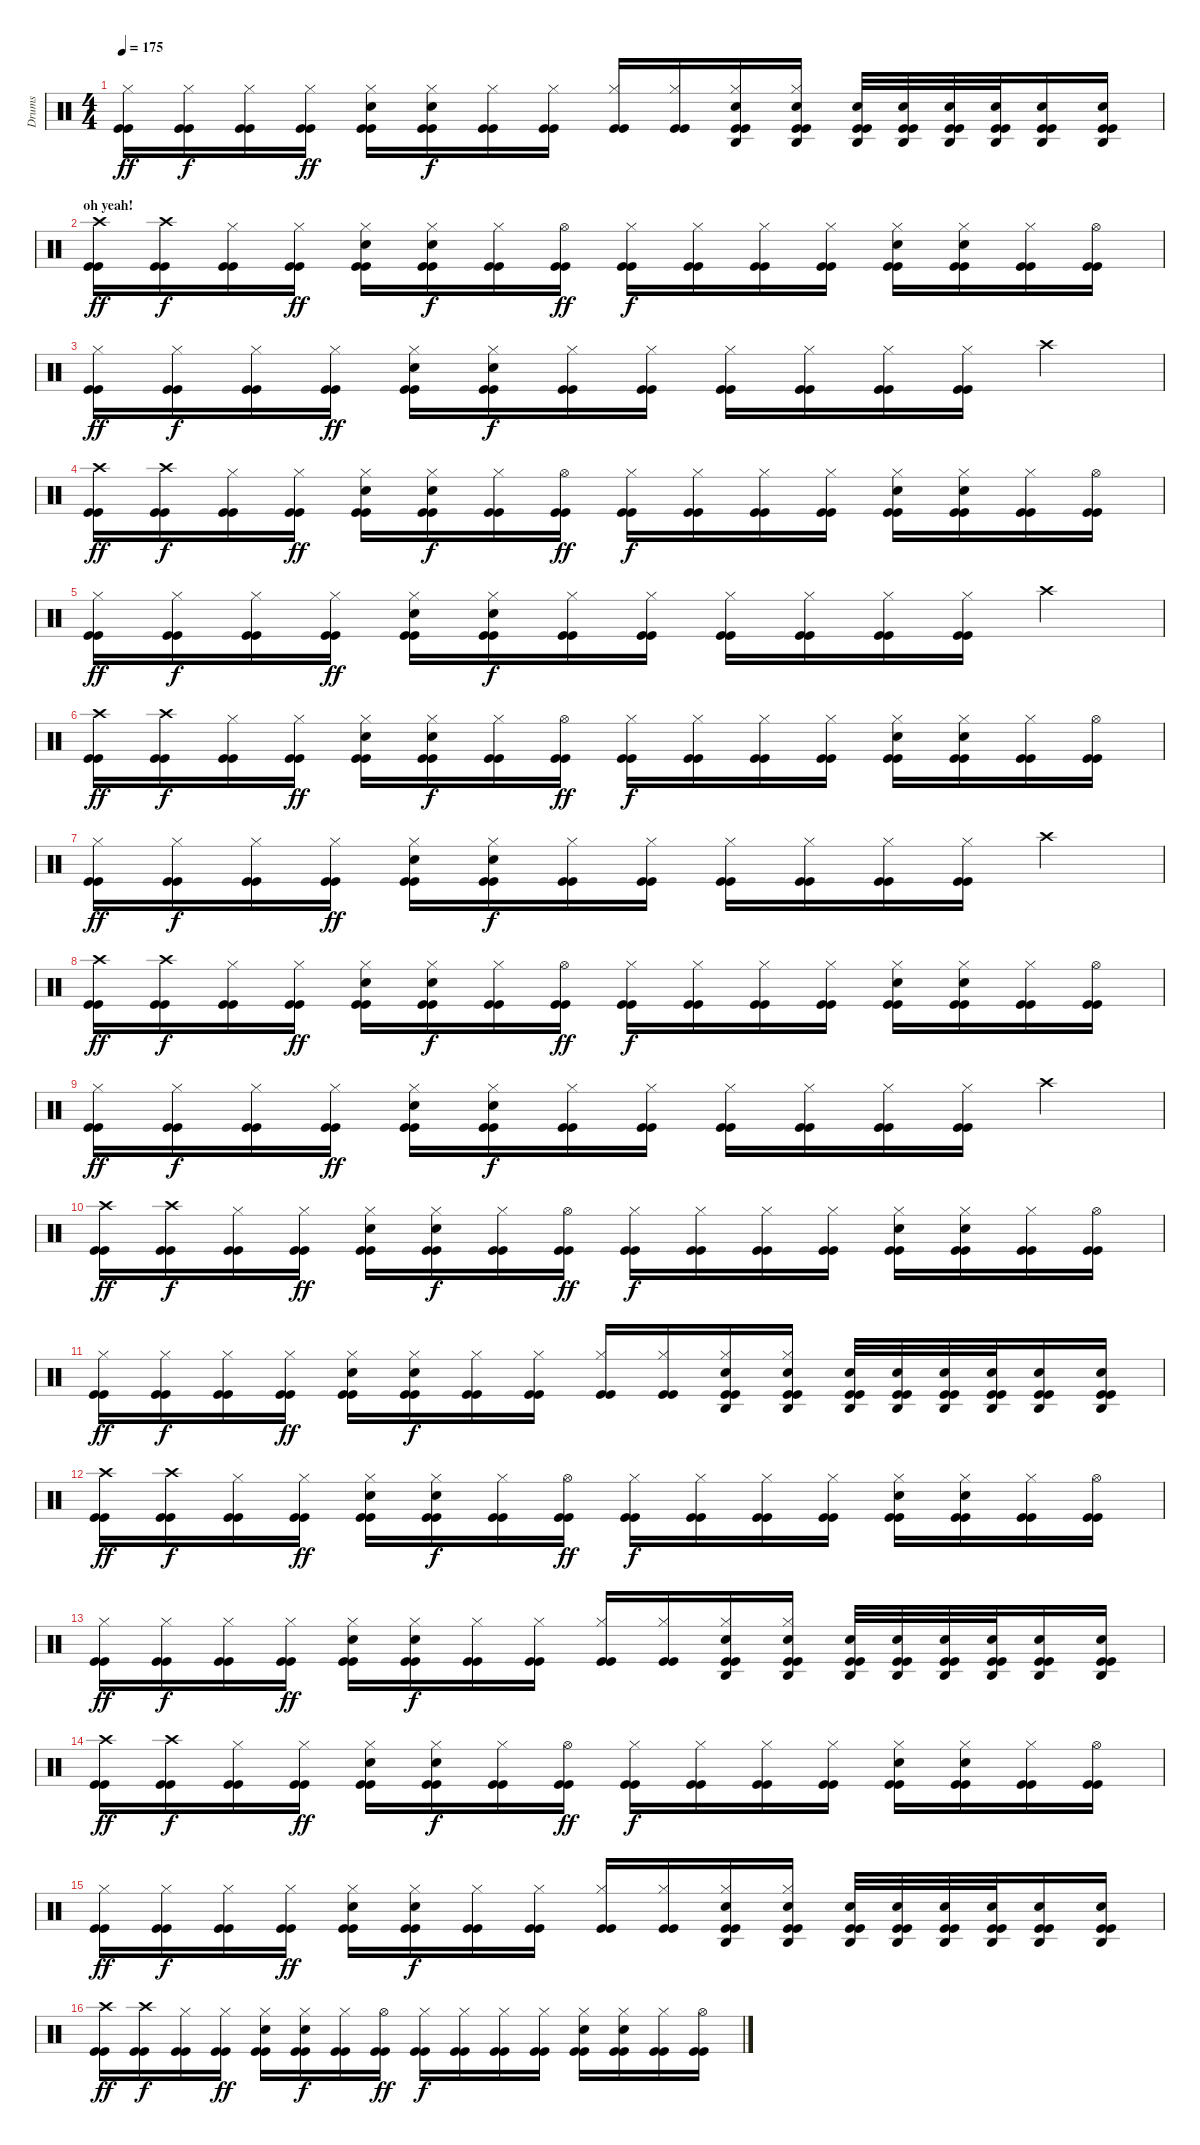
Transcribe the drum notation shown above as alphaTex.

\track ("Drums" "Drums") {instrument percussion}
\staff {score}
\articulation defaults
\ts (4 4)
\tempo 175
\clef neutral
\ks c
("Hi-Hat (closed)" "Kick (hit)" "Kick (hit)").16{dy ff} ("Hi-Hat (closed)" "Kick (hit)" "Kick (hit)").16{dy f} ("Hi-Hat (closed)" "Kick (hit)" "Kick (hit)").16 ("Hi-Hat (closed)" "Kick (hit)" "Kick (hit)").16{dy ff} ("Electric Snare (hit)" "Hi-Hat (closed)" "Kick (hit)" "Kick (hit)").16 ("Electric Snare (hit)" "Hi-Hat (closed)" "Kick (hit)" "Kick (hit)").16{dy f} ("Hi-Hat (closed)" "Kick (hit)" "Kick (hit)").16 ("Hi-Hat (closed)" "Kick (hit)" "Kick (hit)").16 ("Hi-Hat (closed)" "Kick (hit)" "Kick (hit)").16 ("Hi-Hat (closed)" "Kick (hit)" "Kick (hit)").16 ("Agogo high (hit)" "Electric Snare (hit)" "Hi-Hat (closed)" "Kick (hit)" "Kick (hit)").16 ("Agogo high (hit)" "Electric Snare (hit)" "Hi-Hat (closed)" "Kick (hit)" "Kick (hit)").16 ("Agogo high (hit)" "Electric Snare (hit)" "Kick (hit)" "Kick (hit)").32 ("Agogo high (hit)" "Electric Snare (hit)" "Kick (hit)" "Kick (hit)").32 ("Agogo high (hit)" "Electric Snare (hit)" "Kick (hit)" "Kick (hit)").32 ("Agogo high (hit)" "Electric Snare (hit)" "Kick (hit)" "Kick (hit)").32 ("Agogo high (hit)" "Electric Snare (hit)" "Kick (hit)" "Kick (hit)").16 ("Agogo high (hit)" "Electric Snare (hit)" "Kick (hit)" "Kick (hit)").16 |
\section ("" "oh yeah!")
("Crash high (hit)" "Kick (hit)" "Kick (hit)").16{dy ff} ("Crash high (hit)" "Kick (hit)" "Kick (hit)").16{dy f} ("Hi-Hat (closed)" "Kick (hit)" "Kick (hit)").16 ("Hi-Hat (closed)" "Kick (hit)" "Kick (hit)").16{dy ff} ("Electric Snare (hit)" "Hi-Hat (closed)" "Kick (hit)" "Kick (hit)").16 ("Electric Snare (hit)" "Hi-Hat (closed)" "Kick (hit)" "Kick (hit)").16{dy f} ("Hi-Hat (closed)" "Kick (hit)" "Kick (hit)").16 ("Hi-Hat (open)" "Kick (hit)" "Kick (hit)").16{dy ff} ("Hi-Hat (closed)" "Kick (hit)" "Kick (hit)").16{dy f} ("Hi-Hat (closed)" "Kick (hit)" "Kick (hit)").16 ("Hi-Hat (closed)" "Kick (hit)" "Kick (hit)").16 ("Hi-Hat (closed)" "Kick (hit)" "Kick (hit)").16 ("Electric Snare (hit)" "Hi-Hat (closed)" "Kick (hit)" "Kick (hit)").16 ("Electric Snare (hit)" "Hi-Hat (closed)" "Kick (hit)" "Kick (hit)").16 ("Hi-Hat (closed)" "Kick (hit)" "Kick (hit)").16 ("Hi-Hat (open)" "Kick (hit)" "Kick (hit)").16 |
("Hi-Hat (closed)" "Kick (hit)" "Kick (hit)").16{dy ff} ("Hi-Hat (closed)" "Kick (hit)" "Kick (hit)").16{dy f} ("Hi-Hat (closed)" "Kick (hit)" "Kick (hit)").16 ("Hi-Hat (closed)" "Kick (hit)" "Kick (hit)").16{dy ff} ("Electric Snare (hit)" "Hi-Hat (closed)" "Kick (hit)" "Kick (hit)").16 ("Electric Snare (hit)" "Hi-Hat (closed)" "Kick (hit)" "Kick (hit)").16{dy f} ("Hi-Hat (closed)" "Kick (hit)" "Kick (hit)").16 ("Hi-Hat (closed)" "Kick (hit)" "Kick (hit)").16 ("Hi-Hat (closed)" "Kick (hit)" "Kick (hit)").16 ("Hi-Hat (closed)" "Kick (hit)" "Kick (hit)").16 ("Hi-Hat (closed)" "Kick (hit)" "Kick (hit)").16 ("Hi-Hat (closed)" "Kick (hit)" "Kick (hit)").16 "Crash high (hit)".4 |
("Crash high (hit)" "Kick (hit)" "Kick (hit)").16{dy ff} ("Crash high (hit)" "Kick (hit)" "Kick (hit)").16{dy f} ("Hi-Hat (closed)" "Kick (hit)" "Kick (hit)").16 ("Hi-Hat (closed)" "Kick (hit)" "Kick (hit)").16{dy ff} ("Electric Snare (hit)" "Hi-Hat (closed)" "Kick (hit)" "Kick (hit)").16 ("Electric Snare (hit)" "Hi-Hat (closed)" "Kick (hit)" "Kick (hit)").16{dy f} ("Hi-Hat (closed)" "Kick (hit)" "Kick (hit)").16 ("Hi-Hat (open)" "Kick (hit)" "Kick (hit)").16{dy ff} ("Hi-Hat (closed)" "Kick (hit)" "Kick (hit)").16{dy f} ("Hi-Hat (closed)" "Kick (hit)" "Kick (hit)").16 ("Hi-Hat (closed)" "Kick (hit)" "Kick (hit)").16 ("Hi-Hat (closed)" "Kick (hit)" "Kick (hit)").16 ("Electric Snare (hit)" "Hi-Hat (closed)" "Kick (hit)" "Kick (hit)").16 ("Electric Snare (hit)" "Hi-Hat (closed)" "Kick (hit)" "Kick (hit)").16 ("Hi-Hat (closed)" "Kick (hit)" "Kick (hit)").16 ("Hi-Hat (open)" "Kick (hit)" "Kick (hit)").16 |
("Hi-Hat (closed)" "Kick (hit)" "Kick (hit)").16{dy ff} ("Hi-Hat (closed)" "Kick (hit)" "Kick (hit)").16{dy f} ("Hi-Hat (closed)" "Kick (hit)" "Kick (hit)").16 ("Hi-Hat (closed)" "Kick (hit)" "Kick (hit)").16{dy ff} ("Electric Snare (hit)" "Hi-Hat (closed)" "Kick (hit)" "Kick (hit)").16 ("Electric Snare (hit)" "Hi-Hat (closed)" "Kick (hit)" "Kick (hit)").16{dy f} ("Hi-Hat (closed)" "Kick (hit)" "Kick (hit)").16 ("Hi-Hat (closed)" "Kick (hit)" "Kick (hit)").16 ("Hi-Hat (closed)" "Kick (hit)" "Kick (hit)").16 ("Hi-Hat (closed)" "Kick (hit)" "Kick (hit)").16 ("Hi-Hat (closed)" "Kick (hit)" "Kick (hit)").16 ("Hi-Hat (closed)" "Kick (hit)" "Kick (hit)").16 "Crash high (hit)".4 |
("Crash high (hit)" "Kick (hit)" "Kick (hit)").16{dy ff} ("Crash high (hit)" "Kick (hit)" "Kick (hit)").16{dy f} ("Hi-Hat (closed)" "Kick (hit)" "Kick (hit)").16 ("Hi-Hat (closed)" "Kick (hit)" "Kick (hit)").16{dy ff} ("Electric Snare (hit)" "Hi-Hat (closed)" "Kick (hit)" "Kick (hit)").16 ("Electric Snare (hit)" "Hi-Hat (closed)" "Kick (hit)" "Kick (hit)").16{dy f} ("Hi-Hat (closed)" "Kick (hit)" "Kick (hit)").16 ("Hi-Hat (open)" "Kick (hit)" "Kick (hit)").16{dy ff} ("Hi-Hat (closed)" "Kick (hit)" "Kick (hit)").16{dy f} ("Hi-Hat (closed)" "Kick (hit)" "Kick (hit)").16 ("Hi-Hat (closed)" "Kick (hit)" "Kick (hit)").16 ("Hi-Hat (closed)" "Kick (hit)" "Kick (hit)").16 ("Electric Snare (hit)" "Hi-Hat (closed)" "Kick (hit)" "Kick (hit)").16 ("Electric Snare (hit)" "Hi-Hat (closed)" "Kick (hit)" "Kick (hit)").16 ("Hi-Hat (closed)" "Kick (hit)" "Kick (hit)").16 ("Hi-Hat (open)" "Kick (hit)" "Kick (hit)").16 |
("Hi-Hat (closed)" "Kick (hit)" "Kick (hit)").16{dy ff} ("Hi-Hat (closed)" "Kick (hit)" "Kick (hit)").16{dy f} ("Hi-Hat (closed)" "Kick (hit)" "Kick (hit)").16 ("Hi-Hat (closed)" "Kick (hit)" "Kick (hit)").16{dy ff} ("Electric Snare (hit)" "Hi-Hat (closed)" "Kick (hit)" "Kick (hit)").16 ("Electric Snare (hit)" "Hi-Hat (closed)" "Kick (hit)" "Kick (hit)").16{dy f} ("Hi-Hat (closed)" "Kick (hit)" "Kick (hit)").16 ("Hi-Hat (closed)" "Kick (hit)" "Kick (hit)").16 ("Hi-Hat (closed)" "Kick (hit)" "Kick (hit)").16 ("Hi-Hat (closed)" "Kick (hit)" "Kick (hit)").16 ("Hi-Hat (closed)" "Kick (hit)" "Kick (hit)").16 ("Hi-Hat (closed)" "Kick (hit)" "Kick (hit)").16 "Crash high (hit)".4 |
("Crash high (hit)" "Kick (hit)" "Kick (hit)").16{dy ff} ("Crash high (hit)" "Kick (hit)" "Kick (hit)").16{dy f} ("Hi-Hat (closed)" "Kick (hit)" "Kick (hit)").16 ("Hi-Hat (closed)" "Kick (hit)" "Kick (hit)").16{dy ff} ("Electric Snare (hit)" "Hi-Hat (closed)" "Kick (hit)" "Kick (hit)").16 ("Electric Snare (hit)" "Hi-Hat (closed)" "Kick (hit)" "Kick (hit)").16{dy f} ("Hi-Hat (closed)" "Kick (hit)" "Kick (hit)").16 ("Hi-Hat (open)" "Kick (hit)" "Kick (hit)").16{dy ff} ("Hi-Hat (closed)" "Kick (hit)" "Kick (hit)").16{dy f} ("Hi-Hat (closed)" "Kick (hit)" "Kick (hit)").16 ("Hi-Hat (closed)" "Kick (hit)" "Kick (hit)").16 ("Hi-Hat (closed)" "Kick (hit)" "Kick (hit)").16 ("Electric Snare (hit)" "Hi-Hat (closed)" "Kick (hit)" "Kick (hit)").16 ("Electric Snare (hit)" "Hi-Hat (closed)" "Kick (hit)" "Kick (hit)").16 ("Hi-Hat (closed)" "Kick (hit)" "Kick (hit)").16 ("Hi-Hat (open)" "Kick (hit)" "Kick (hit)").16 |
("Hi-Hat (closed)" "Kick (hit)" "Kick (hit)").16{dy ff} ("Hi-Hat (closed)" "Kick (hit)" "Kick (hit)").16{dy f} ("Hi-Hat (closed)" "Kick (hit)" "Kick (hit)").16 ("Hi-Hat (closed)" "Kick (hit)" "Kick (hit)").16{dy ff} ("Electric Snare (hit)" "Hi-Hat (closed)" "Kick (hit)" "Kick (hit)").16 ("Electric Snare (hit)" "Hi-Hat (closed)" "Kick (hit)" "Kick (hit)").16{dy f} ("Hi-Hat (closed)" "Kick (hit)" "Kick (hit)").16 ("Hi-Hat (closed)" "Kick (hit)" "Kick (hit)").16 ("Hi-Hat (closed)" "Kick (hit)" "Kick (hit)").16 ("Hi-Hat (closed)" "Kick (hit)" "Kick (hit)").16 ("Hi-Hat (closed)" "Kick (hit)" "Kick (hit)").16 ("Hi-Hat (closed)" "Kick (hit)" "Kick (hit)").16 "Crash high (hit)".4 |
("Crash high (hit)" "Kick (hit)" "Kick (hit)").16{dy ff} ("Crash high (hit)" "Kick (hit)" "Kick (hit)").16{dy f} ("Hi-Hat (closed)" "Kick (hit)" "Kick (hit)").16 ("Hi-Hat (closed)" "Kick (hit)" "Kick (hit)").16{dy ff} ("Electric Snare (hit)" "Hi-Hat (closed)" "Kick (hit)" "Kick (hit)").16 ("Electric Snare (hit)" "Hi-Hat (closed)" "Kick (hit)" "Kick (hit)").16{dy f} ("Hi-Hat (closed)" "Kick (hit)" "Kick (hit)").16 ("Hi-Hat (open)" "Kick (hit)" "Kick (hit)").16{dy ff} ("Hi-Hat (closed)" "Kick (hit)" "Kick (hit)").16{dy f} ("Hi-Hat (closed)" "Kick (hit)" "Kick (hit)").16 ("Hi-Hat (closed)" "Kick (hit)" "Kick (hit)").16 ("Hi-Hat (closed)" "Kick (hit)" "Kick (hit)").16 ("Electric Snare (hit)" "Hi-Hat (closed)" "Kick (hit)" "Kick (hit)").16 ("Electric Snare (hit)" "Hi-Hat (closed)" "Kick (hit)" "Kick (hit)").16 ("Hi-Hat (closed)" "Kick (hit)" "Kick (hit)").16 ("Hi-Hat (open)" "Kick (hit)" "Kick (hit)").16 |
("Hi-Hat (closed)" "Kick (hit)" "Kick (hit)").16{dy ff} ("Hi-Hat (closed)" "Kick (hit)" "Kick (hit)").16{dy f} ("Hi-Hat (closed)" "Kick (hit)" "Kick (hit)").16 ("Hi-Hat (closed)" "Kick (hit)" "Kick (hit)").16{dy ff} ("Electric Snare (hit)" "Hi-Hat (closed)" "Kick (hit)" "Kick (hit)").16 ("Electric Snare (hit)" "Hi-Hat (closed)" "Kick (hit)" "Kick (hit)").16{dy f} ("Hi-Hat (closed)" "Kick (hit)" "Kick (hit)").16 ("Hi-Hat (closed)" "Kick (hit)" "Kick (hit)").16 ("Hi-Hat (closed)" "Kick (hit)" "Kick (hit)").16 ("Hi-Hat (closed)" "Kick (hit)" "Kick (hit)").16 ("Agogo high (hit)" "Electric Snare (hit)" "Hi-Hat (closed)" "Kick (hit)" "Kick (hit)").16 ("Agogo high (hit)" "Electric Snare (hit)" "Hi-Hat (closed)" "Kick (hit)" "Kick (hit)").16 ("Agogo high (hit)" "Electric Snare (hit)" "Kick (hit)" "Kick (hit)").32 ("Agogo high (hit)" "Electric Snare (hit)" "Kick (hit)" "Kick (hit)").32 ("Agogo high (hit)" "Electric Snare (hit)" "Kick (hit)" "Kick (hit)").32 ("Agogo high (hit)" "Electric Snare (hit)" "Kick (hit)" "Kick (hit)").32 ("Agogo high (hit)" "Electric Snare (hit)" "Kick (hit)" "Kick (hit)").16 ("Agogo high (hit)" "Electric Snare (hit)" "Kick (hit)" "Kick (hit)").16 |
("Crash high (hit)" "Kick (hit)" "Kick (hit)").16{dy ff} ("Crash high (hit)" "Kick (hit)" "Kick (hit)").16{dy f} ("Hi-Hat (closed)" "Kick (hit)" "Kick (hit)").16 ("Hi-Hat (closed)" "Kick (hit)" "Kick (hit)").16{dy ff} ("Electric Snare (hit)" "Hi-Hat (closed)" "Kick (hit)" "Kick (hit)").16 ("Electric Snare (hit)" "Hi-Hat (closed)" "Kick (hit)" "Kick (hit)").16{dy f} ("Hi-Hat (closed)" "Kick (hit)" "Kick (hit)").16 ("Hi-Hat (open)" "Kick (hit)" "Kick (hit)").16{dy ff} ("Hi-Hat (closed)" "Kick (hit)" "Kick (hit)").16{dy f} ("Hi-Hat (closed)" "Kick (hit)" "Kick (hit)").16 ("Hi-Hat (closed)" "Kick (hit)" "Kick (hit)").16 ("Hi-Hat (closed)" "Kick (hit)" "Kick (hit)").16 ("Electric Snare (hit)" "Hi-Hat (closed)" "Kick (hit)" "Kick (hit)").16 ("Electric Snare (hit)" "Hi-Hat (closed)" "Kick (hit)" "Kick (hit)").16 ("Hi-Hat (closed)" "Kick (hit)" "Kick (hit)").16 ("Hi-Hat (open)" "Kick (hit)" "Kick (hit)").16 |
("Hi-Hat (closed)" "Kick (hit)" "Kick (hit)").16{dy ff} ("Hi-Hat (closed)" "Kick (hit)" "Kick (hit)").16{dy f} ("Hi-Hat (closed)" "Kick (hit)" "Kick (hit)").16 ("Hi-Hat (closed)" "Kick (hit)" "Kick (hit)").16{dy ff} ("Electric Snare (hit)" "Hi-Hat (closed)" "Kick (hit)" "Kick (hit)").16 ("Electric Snare (hit)" "Hi-Hat (closed)" "Kick (hit)" "Kick (hit)").16{dy f} ("Hi-Hat (closed)" "Kick (hit)" "Kick (hit)").16 ("Hi-Hat (closed)" "Kick (hit)" "Kick (hit)").16 ("Hi-Hat (closed)" "Kick (hit)" "Kick (hit)").16 ("Hi-Hat (closed)" "Kick (hit)" "Kick (hit)").16 ("Agogo high (hit)" "Electric Snare (hit)" "Hi-Hat (closed)" "Kick (hit)" "Kick (hit)").16 ("Agogo high (hit)" "Electric Snare (hit)" "Hi-Hat (closed)" "Kick (hit)" "Kick (hit)").16 ("Agogo high (hit)" "Electric Snare (hit)" "Kick (hit)" "Kick (hit)").32 ("Agogo high (hit)" "Electric Snare (hit)" "Kick (hit)" "Kick (hit)").32 ("Agogo high (hit)" "Electric Snare (hit)" "Kick (hit)" "Kick (hit)").32 ("Agogo high (hit)" "Electric Snare (hit)" "Kick (hit)" "Kick (hit)").32 ("Agogo high (hit)" "Electric Snare (hit)" "Kick (hit)" "Kick (hit)").16 ("Agogo high (hit)" "Electric Snare (hit)" "Kick (hit)" "Kick (hit)").16 |
("Crash high (hit)" "Kick (hit)" "Kick (hit)").16{dy ff} ("Crash high (hit)" "Kick (hit)" "Kick (hit)").16{dy f} ("Hi-Hat (closed)" "Kick (hit)" "Kick (hit)").16 ("Hi-Hat (closed)" "Kick (hit)" "Kick (hit)").16{dy ff} ("Electric Snare (hit)" "Hi-Hat (closed)" "Kick (hit)" "Kick (hit)").16 ("Electric Snare (hit)" "Hi-Hat (closed)" "Kick (hit)" "Kick (hit)").16{dy f} ("Hi-Hat (closed)" "Kick (hit)" "Kick (hit)").16 ("Hi-Hat (open)" "Kick (hit)" "Kick (hit)").16{dy ff} ("Hi-Hat (closed)" "Kick (hit)" "Kick (hit)").16{dy f} ("Hi-Hat (closed)" "Kick (hit)" "Kick (hit)").16 ("Hi-Hat (closed)" "Kick (hit)" "Kick (hit)").16 ("Hi-Hat (closed)" "Kick (hit)" "Kick (hit)").16 ("Electric Snare (hit)" "Hi-Hat (closed)" "Kick (hit)" "Kick (hit)").16 ("Electric Snare (hit)" "Hi-Hat (closed)" "Kick (hit)" "Kick (hit)").16 ("Hi-Hat (closed)" "Kick (hit)" "Kick (hit)").16 ("Hi-Hat (open)" "Kick (hit)" "Kick (hit)").16 |
("Hi-Hat (closed)" "Kick (hit)" "Kick (hit)").16{dy ff} ("Hi-Hat (closed)" "Kick (hit)" "Kick (hit)").16{dy f} ("Hi-Hat (closed)" "Kick (hit)" "Kick (hit)").16 ("Hi-Hat (closed)" "Kick (hit)" "Kick (hit)").16{dy ff} ("Electric Snare (hit)" "Hi-Hat (closed)" "Kick (hit)" "Kick (hit)").16 ("Electric Snare (hit)" "Hi-Hat (closed)" "Kick (hit)" "Kick (hit)").16{dy f} ("Hi-Hat (closed)" "Kick (hit)" "Kick (hit)").16 ("Hi-Hat (closed)" "Kick (hit)" "Kick (hit)").16 ("Hi-Hat (closed)" "Kick (hit)" "Kick (hit)").16 ("Hi-Hat (closed)" "Kick (hit)" "Kick (hit)").16 ("Agogo high (hit)" "Electric Snare (hit)" "Hi-Hat (closed)" "Kick (hit)" "Kick (hit)").16 ("Agogo high (hit)" "Electric Snare (hit)" "Hi-Hat (closed)" "Kick (hit)" "Kick (hit)").16 ("Agogo high (hit)" "Electric Snare (hit)" "Kick (hit)" "Kick (hit)").32 ("Agogo high (hit)" "Electric Snare (hit)" "Kick (hit)" "Kick (hit)").32 ("Agogo high (hit)" "Electric Snare (hit)" "Kick (hit)" "Kick (hit)").32 ("Agogo high (hit)" "Electric Snare (hit)" "Kick (hit)" "Kick (hit)").32 ("Agogo high (hit)" "Electric Snare (hit)" "Kick (hit)" "Kick (hit)").16 ("Agogo high (hit)" "Electric Snare (hit)" "Kick (hit)" "Kick (hit)").16 |
("Crash high (hit)" "Kick (hit)" "Kick (hit)").16{dy ff} ("Crash high (hit)" "Kick (hit)" "Kick (hit)").16{dy f} ("Hi-Hat (closed)" "Kick (hit)" "Kick (hit)").16 ("Hi-Hat (closed)" "Kick (hit)" "Kick (hit)").16{dy ff} ("Electric Snare (hit)" "Hi-Hat (closed)" "Kick (hit)" "Kick (hit)").16 ("Electric Snare (hit)" "Hi-Hat (closed)" "Kick (hit)" "Kick (hit)").16{dy f} ("Hi-Hat (closed)" "Kick (hit)" "Kick (hit)").16 ("Hi-Hat (open)" "Kick (hit)" "Kick (hit)").16{dy ff} ("Hi-Hat (closed)" "Kick (hit)" "Kick (hit)").16{dy f} ("Hi-Hat (closed)" "Kick (hit)" "Kick (hit)").16 ("Hi-Hat (closed)" "Kick (hit)" "Kick (hit)").16 ("Hi-Hat (closed)" "Kick (hit)" "Kick (hit)").16 ("Electric Snare (hit)" "Hi-Hat (closed)" "Kick (hit)" "Kick (hit)").16 ("Electric Snare (hit)" "Hi-Hat (closed)" "Kick (hit)" "Kick (hit)").16 ("Hi-Hat (closed)" "Kick (hit)" "Kick (hit)").16 ("Hi-Hat (open)" "Kick (hit)" "Kick (hit)").16
